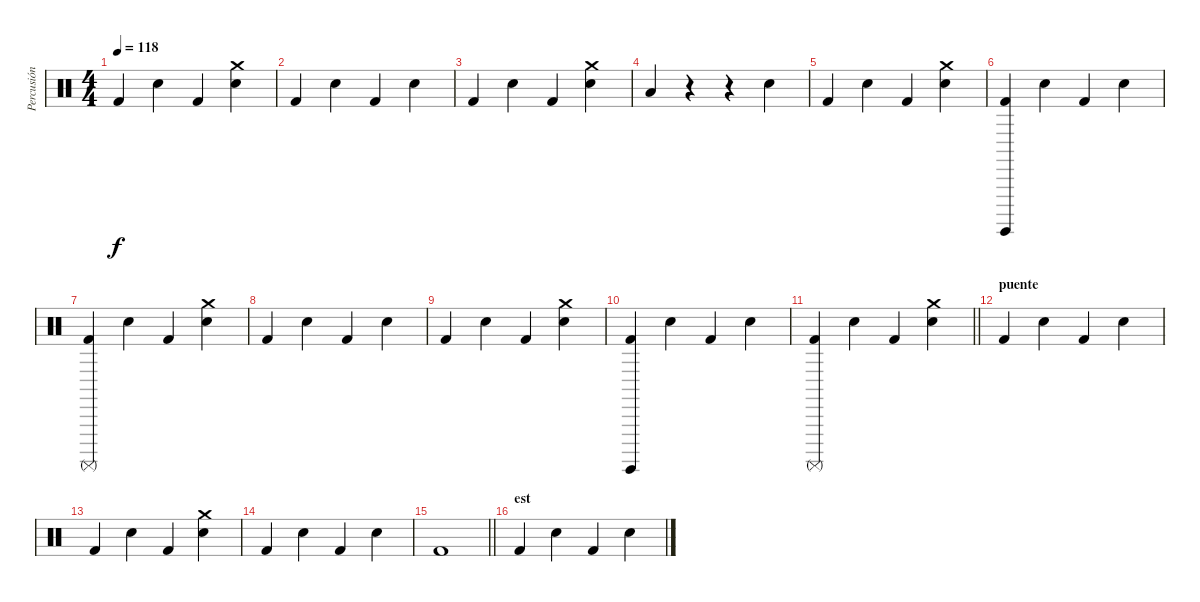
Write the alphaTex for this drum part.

\track ("Percusión" "Percusión") {instrument percussion}
\staff {score}
\articulation defaults
\ts (4 4)
\tempo 118
\clef neutral
\ks c "Kick (hit) 2".4{dy f} "Hand Clap (hit)".4 "Kick (hit) 2".4
("Hand Clap (hit)" "Crash medium (hit)").4 |
"Kick (hit) 2".4 "Hand Clap (hit)".4 "Kick (hit) 2".4 "Hand Clap (hit)".4 |
"Kick (hit) 2".4 "Hand Clap (hit)".4 "Kick (hit) 2".4 ("Hand Clap (hit)" "Crash medium (hit)").4 |
"Low Tom (hit)".4 r.4 r.4 "Hand Clap (hit)".4 |
"Kick (hit) 2".4 "Hand Clap (hit)".4 "Kick (hit) 2".4 ("Hand Clap (hit)" "Crash medium (hit)").4 |
("Kick (hit) 2" "Surdo (hit)").4 "Hand Clap (hit)".4 "Kick (hit) 2".4 "Hand Clap (hit)".4 |
("Kick (hit) 2" "Surdo (mute)").4 "Hand Clap (hit)".4 "Kick (hit) 2".4 ("Hand Clap (hit)" "Crash medium (hit)").4 |
"Kick (hit) 2".4 "Hand Clap (hit)".4 "Kick (hit) 2".4 "Hand Clap (hit)".4 |
"Kick (hit) 2".4 "Hand Clap (hit)".4 "Kick (hit) 2".4 ("Hand Clap (hit)" "Crash medium (hit)").4 |
("Kick (hit) 2" "Surdo (hit)").4 "Hand Clap (hit)".4 "Kick (hit) 2".4 "Hand Clap (hit)".4 |
\barLineRight lightlight
("Kick (hit) 2" "Surdo (mute)").4 "Hand Clap (hit)".4 "Kick (hit) 2".4 ("Hand Clap (hit)" "Crash medium (hit)").4 |
\section ("" "puente")
"Kick (hit) 2".4 "Hand Clap (hit)".4 "Kick (hit) 2".4 "Hand Clap (hit)".4 |
"Kick (hit) 2".4 "Hand Clap (hit)".4 "Kick (hit) 2".4 ("Hand Clap (hit)" "Crash medium (hit)").4 |
"Kick (hit) 2".4 "Hand Clap (hit)".4 "Kick (hit) 2".4 "Hand Clap (hit)".4 |
\barLineRight lightlight "Kick (hit) 2".1
|
\section ("" "est")
"Kick (hit) 2".4 "Hand Clap (hit)".4 "Kick (hit) 2".4 "Hand Clap (hit)".4
